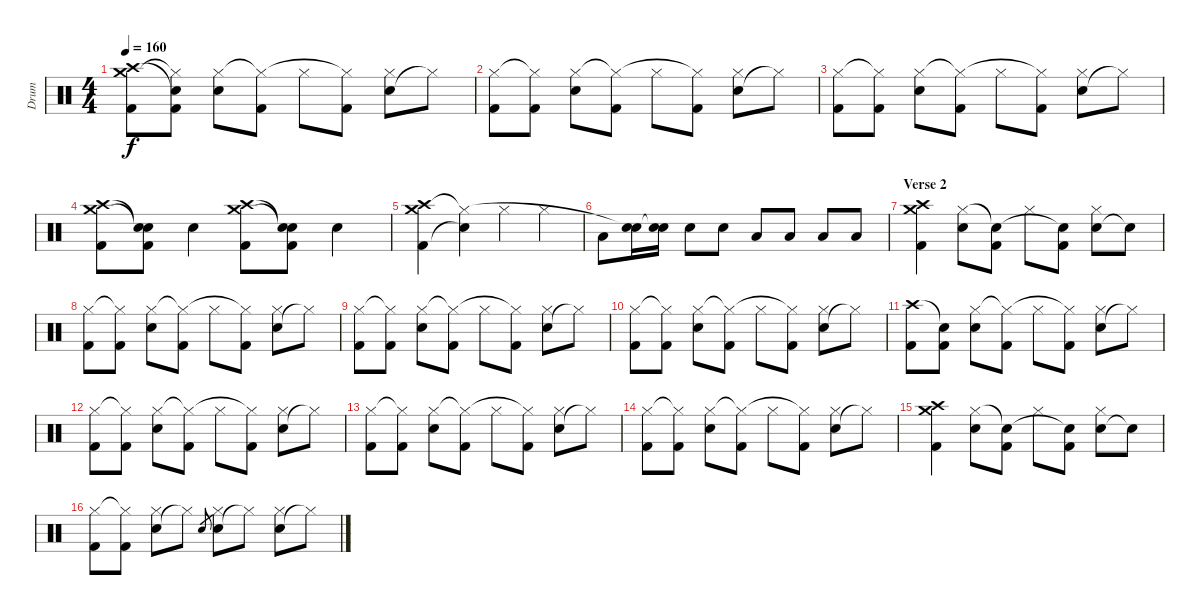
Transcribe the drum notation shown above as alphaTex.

\track ("Drum" "Drum") {instrument percussion}
\staff {score}
\articulation defaults
\ts (4 4)
\tempo 160
\clef neutral
\ks c
("Kick (hit) 2" "Crash high (hit)" "Crash medium (hit)").8{dy f} ("Kick (hit) 2" "Electric Snare (hit)"{t} "Hi-Hat (closed)"{t}).8 ("Electric Snare (hit)" "Hi-Hat (closed)").8 ("Kick (hit) 2" "Hi-Hat (closed)"{t}).8 "Hi-Hat (closed)".8 ("Kick (hit) 2" "Hi-Hat (closed)"{t}).8 ("Electric Snare (hit)" "Hi-Hat (closed)").8 "Hi-Hat (closed)"{t}.8 |
("Kick (hit) 2" "Hi-Hat (closed)").8 ("Kick (hit) 2" "Hi-Hat (closed)"{t}).8 ("Electric Snare (hit)" "Hi-Hat (closed)").8 ("Kick (hit) 2" "Hi-Hat (closed)"{t}).8 "Hi-Hat (closed)".8 ("Kick (hit) 2" "Hi-Hat (closed)"{t}).8 ("Electric Snare (hit)" "Hi-Hat (closed)").8 "Hi-Hat (closed)"{t}.8 |
("Kick (hit) 2" "Hi-Hat (closed)").8 ("Kick (hit) 2" "Hi-Hat (closed)"{t}).8 ("Electric Snare (hit)" "Hi-Hat (closed)").8 ("Kick (hit) 2" "Hi-Hat (closed)"{t}).8 "Hi-Hat (closed)".8 ("Kick (hit) 2" "Hi-Hat (closed)"{t}).8 ("Electric Snare (hit)" "Hi-Hat (closed)").8 "Hi-Hat (closed)"{t}.8 |
("Kick (hit) 2" "Crash high (hit)" "Crash medium (hit)").8 ("Kick (hit) 2" "Electric Snare (hit)"{t} "Snare (hit)"{t}).8 "Electric Snare (hit)".4 ("Kick (hit) 2" "Crash high (hit)" "Crash medium (hit)").8 ("Kick (hit) 2" "Snare (hit)"{t} "Snare (hit)"{t}).8 "Electric Snare (hit)".4 |
("Kick (hit) 2" "Crash high (hit)" "Crash medium (hit)").4 ("Snare (hit)"{t} "Hi-Hat (closed)"{t}).4 "Hi-Hat (closed)".4 "Hi-Hat (closed)".4 |
"Low Floor Tom (hit)".8 ("Electric Snare (hit)" "Snare (hit)"{t}).16 ("Electric Snare (hit)" "Snare (hit)"{t}).16 "Electric Snare (hit)".8 "Electric Snare (hit)".8 "Low Tom (hit)".8 "Low Tom (hit)".8 "Low Tom (hit)".8 "Low Tom (hit)".8 |
\section ("" "Verse 2")
("Kick (hit) 2" "Crash high (hit)" "Crash medium (hit)").4 ("Electric Snare (hit)" "Hi-Hat (closed)").8 ("Kick (hit) 2" "Snare (hit)"{t}).8 "Hi-Hat (closed)".8 ("Kick (hit) 2" "Snare (hit)"{t}).8 ("Electric Snare (hit)" "Hi-Hat (closed)").8 "Snare (hit)"{t}.8 |
("Kick (hit) 2" "Hi-Hat (closed)").8 ("Kick (hit) 2" "Hi-Hat (closed)"{t}).8 ("Electric Snare (hit)" "Hi-Hat (closed)").8 ("Kick (hit) 2" "Hi-Hat (closed)"{t}).8 "Hi-Hat (closed)".8 ("Kick (hit) 2" "Hi-Hat (closed)"{t}).8 ("Electric Snare (hit)" "Hi-Hat (closed)").8 "Hi-Hat (closed)"{t}.8 |
("Kick (hit) 2" "Hi-Hat (closed)").8 ("Kick (hit) 2" "Hi-Hat (closed)"{t}).8 ("Electric Snare (hit)" "Hi-Hat (closed)").8 ("Kick (hit) 2" "Hi-Hat (closed)"{t}).8 "Hi-Hat (closed)".8 ("Kick (hit) 2" "Hi-Hat (closed)"{t}).8 ("Electric Snare (hit)" "Hi-Hat (closed)").8 "Hi-Hat (closed)"{t}.8 |
("Kick (hit) 2" "Hi-Hat (closed)").8 ("Kick (hit) 2" "Hi-Hat (closed)"{t}).8 ("Electric Snare (hit)" "Hi-Hat (closed)").8 ("Kick (hit) 2" "Hi-Hat (closed)"{t}).8 "Hi-Hat (closed)".8 ("Kick (hit) 2" "Hi-Hat (closed)"{t}).8 ("Electric Snare (hit)" "Hi-Hat (closed)").8 "Hi-Hat (closed)"{t}.8 |
("Kick (hit) 2" "Crash high (hit)").8 ("Kick (hit) 2" "Snare (hit)"{t}).8 ("Electric Snare (hit)" "Hi-Hat (closed)").8 ("Kick (hit) 2" "Hi-Hat (closed)"{t}).8 "Hi-Hat (closed)".8 ("Kick (hit) 2" "Hi-Hat (closed)"{t}).8 ("Electric Snare (hit)" "Hi-Hat (closed)").8 "Hi-Hat (closed)"{t}.8 |
("Kick (hit) 2" "Hi-Hat (closed)").8 ("Kick (hit) 2" "Hi-Hat (closed)"{t}).8 ("Electric Snare (hit)" "Hi-Hat (closed)").8 ("Kick (hit) 2" "Hi-Hat (closed)"{t}).8 "Hi-Hat (closed)".8 ("Kick (hit) 2" "Hi-Hat (closed)"{t}).8 ("Electric Snare (hit)" "Hi-Hat (closed)").8 "Hi-Hat (closed)"{t}.8 |
("Kick (hit) 2" "Hi-Hat (closed)").8 ("Kick (hit) 2" "Hi-Hat (closed)"{t}).8 ("Electric Snare (hit)" "Hi-Hat (closed)").8 ("Kick (hit) 2" "Hi-Hat (closed)"{t}).8 "Hi-Hat (closed)".8 ("Kick (hit) 2" "Hi-Hat (closed)"{t}).8 ("Electric Snare (hit)" "Hi-Hat (closed)").8 "Hi-Hat (closed)"{t}.8 |
("Kick (hit) 2" "Hi-Hat (closed)").8 ("Kick (hit) 2" "Hi-Hat (closed)"{t}).8 ("Electric Snare (hit)" "Hi-Hat (closed)").8 ("Kick (hit) 2" "Hi-Hat (closed)"{t}).8 "Hi-Hat (closed)".8 ("Kick (hit) 2" "Hi-Hat (closed)"{t}).8 ("Electric Snare (hit)" "Hi-Hat (closed)").8 "Hi-Hat (closed)"{t}.8 |
\section ("" "")
("Kick (hit) 2" "Crash high (hit)" "Crash medium (hit)").4 ("Electric Snare (hit)" "Hi-Hat (closed)").8 ("Kick (hit) 2" "Snare (hit)"{t}).8 "Hi-Hat (closed)".8 ("Kick (hit) 2" "Snare (hit)"{t}).8 ("Electric Snare (hit)" "Hi-Hat (closed)").8 "Snare (hit)"{t}.8 |
("Kick (hit) 2" "Hi-Hat (closed)").8 ("Kick (hit) 2" "Hi-Hat (closed)"{t}).8 ("Electric Snare (hit)" "Hi-Hat (closed)").8 "Hi-Hat (closed)"{t}.8 "Electric Snare (hit)".8{gr} ("Electric Snare (hit)" "Hi-Hat (closed)").8 "Hi-Hat (closed)"{t}.8 ("Electric Snare (hit)" "Hi-Hat (closed)").8 "Hi-Hat (closed)"{t}.8
